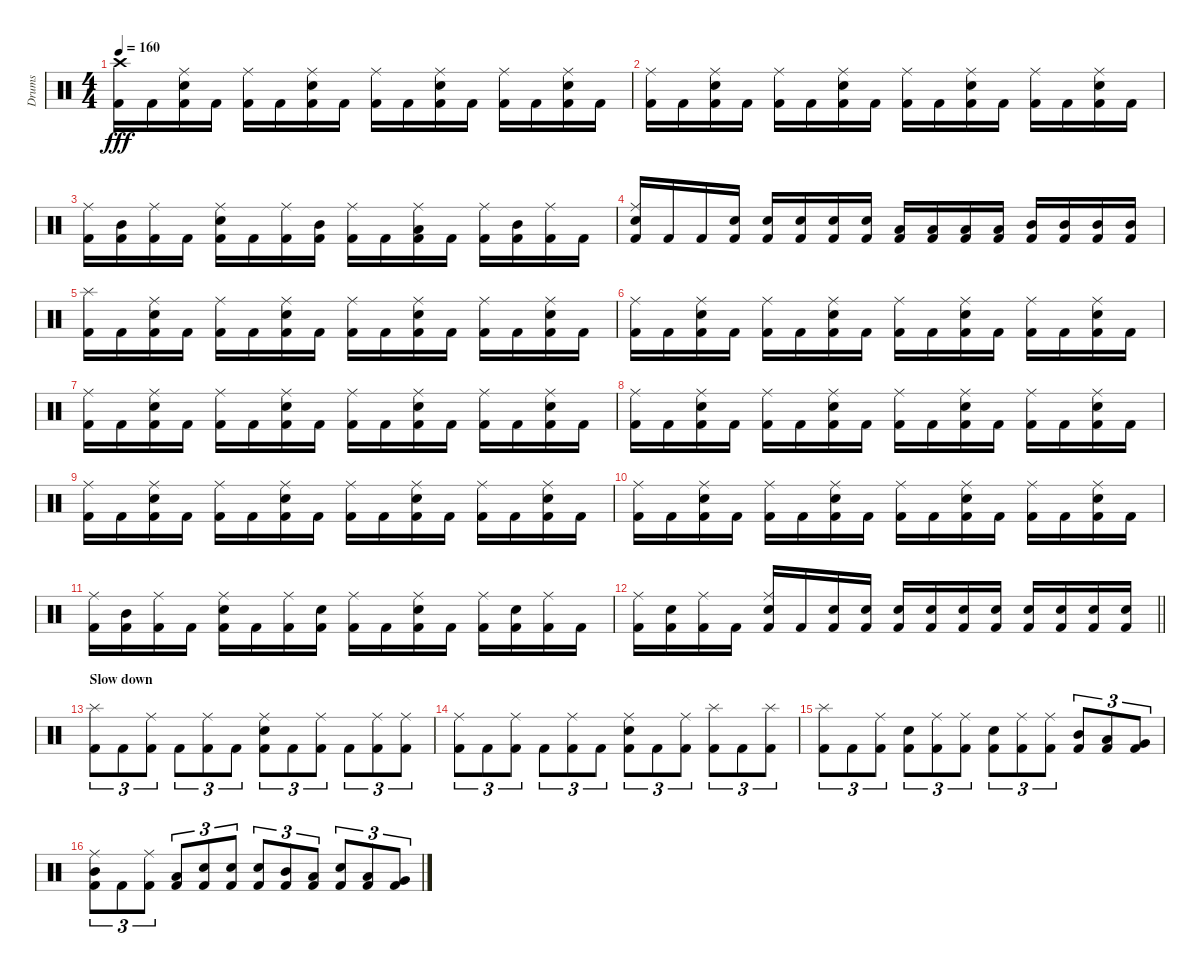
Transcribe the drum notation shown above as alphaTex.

\track ("Drums" "Drums") {instrument percussion}
\staff {score}
\articulation defaults
\ts (4 4)
\tempo 160
\clef neutral
\ks c
("Crash high (hit)" "Kick (hit) 2").16{dy fff} "Kick (hit) 2".16 ("Ride (middle)" "Electric Snare (hit)" "Kick (hit) 2").16 "Kick (hit) 2".16 ("Ride (middle)" "Kick (hit) 2").16 "Kick (hit) 2".16 ("Ride (middle)" "Electric Snare (hit)" "Kick (hit) 2").16 "Kick (hit) 2".16 ("Ride (middle)" "Kick (hit) 2").16 "Kick (hit) 2".16 ("Ride (middle)" "Electric Snare (hit)" "Kick (hit) 2").16 "Kick (hit) 2".16 ("Ride (middle)" "Kick (hit) 2").16 "Kick (hit) 2".16 ("Ride (middle)" "Electric Snare (hit)" "Kick (hit) 2").16 "Kick (hit) 2".16 |
("Ride (middle)" "Kick (hit) 2").16 "Kick (hit) 2".16 ("Ride (middle)" "Electric Snare (hit)" "Kick (hit) 2").16 "Kick (hit) 2".16 ("Ride (middle)" "Kick (hit) 2").16 "Kick (hit) 2".16 ("Ride (middle)" "Electric Snare (hit)" "Kick (hit) 2").16 "Kick (hit) 2".16 ("Ride (middle)" "Kick (hit) 2").16 "Kick (hit) 2".16 ("Ride (middle)" "Electric Snare (hit)" "Kick (hit) 2").16 "Kick (hit) 2".16 ("Ride (middle)" "Kick (hit) 2").16 "Kick (hit) 2".16 ("Ride (middle)" "Electric Snare (hit)" "Kick (hit) 2").16 "Kick (hit) 2".16 |
("Ride (middle)" "Kick (hit) 2").16 ("Mid Tom (hit)" "Kick (hit) 2").16 ("Ride (middle)" "Kick (hit) 2").16 "Kick (hit) 2".16 ("Ride (middle)" "Electric Snare (hit)" "Kick (hit) 2").16 "Kick (hit) 2".16 ("Ride (middle)" "Kick (hit) 2").16 ("Mid Tom (hit)" "Kick (hit) 2").16 ("Ride (middle)" "Kick (hit) 2").16 "Kick (hit) 2".16 ("Ride (middle)" "Low Tom (hit)" "Kick (hit) 2").16 "Kick (hit) 2".16 ("Ride (middle)" "Kick (hit) 2").16 ("Mid Tom (hit)" "Kick (hit) 2").16 ("Ride (middle)" "Kick (hit) 2").16 "Kick (hit) 2".16 |
("Ride (middle)" "Electric Snare (hit)" "Kick (hit) 2").16 "Kick (hit) 2".16 "Kick (hit) 2".16 ("Electric Snare (hit)" "Kick (hit) 2").16 ("Electric Snare (hit)" "Kick (hit) 2").16 ("Electric Snare (hit)" "Kick (hit) 2").16 ("Electric Snare (hit)" "Kick (hit) 2").16 ("Electric Snare (hit)" "Kick (hit) 2").16 ("Low Tom (hit)" "Kick (hit) 2").16 ("Low Tom (hit)" "Kick (hit) 2").16 ("Low Tom (hit)" "Kick (hit) 2").16 ("Low Tom (hit)" "Kick (hit) 2").16 ("Mid Tom (hit)" "Kick (hit) 2").16 ("Mid Tom (hit)" "Kick (hit) 2").16 ("Mid Tom (hit)" "Kick (hit) 2").16 ("Mid Tom (hit)" "Kick (hit) 2").16 |
("Splash (hit)" "Kick (hit) 2").16 "Kick (hit) 2".16 ("Ride (middle)" "Electric Snare (hit)" "Kick (hit) 2").16 "Kick (hit) 2".16 ("Ride (middle)" "Kick (hit) 2").16 "Kick (hit) 2".16 ("Ride (middle)" "Electric Snare (hit)" "Kick (hit) 2").16 "Kick (hit) 2".16 ("Ride (middle)" "Kick (hit) 2").16 "Kick (hit) 2".16 ("Ride (middle)" "Electric Snare (hit)" "Kick (hit) 2").16 "Kick (hit) 2".16 ("Ride (middle)" "Kick (hit) 2").16 "Kick (hit) 2".16 ("Ride (middle)" "Electric Snare (hit)" "Kick (hit) 2").16 "Kick (hit) 2".16 |
("Ride (middle)" "Kick (hit) 2").16 "Kick (hit) 2".16 ("Ride (middle)" "Electric Snare (hit)" "Kick (hit) 2").16 "Kick (hit) 2".16 ("Ride (middle)" "Kick (hit) 2").16 "Kick (hit) 2".16 ("Ride (middle)" "Electric Snare (hit)" "Kick (hit) 2").16 "Kick (hit) 2".16 ("Ride (middle)" "Kick (hit) 2").16 "Kick (hit) 2".16 ("Ride (middle)" "Electric Snare (hit)" "Kick (hit) 2").16 "Kick (hit) 2".16 ("Ride (middle)" "Kick (hit) 2").16 "Kick (hit) 2".16 ("Ride (middle)" "Electric Snare (hit)" "Kick (hit) 2").16 "Kick (hit) 2".16 |
("Ride (middle)" "Kick (hit) 2").16 "Kick (hit) 2".16 ("Ride (middle)" "Electric Snare (hit)" "Kick (hit) 2").16 "Kick (hit) 2".16 ("Ride (middle)" "Kick (hit) 2").16 "Kick (hit) 2".16 ("Ride (middle)" "Electric Snare (hit)" "Kick (hit) 2").16 "Kick (hit) 2".16 ("Ride (middle)" "Kick (hit) 2").16 "Kick (hit) 2".16 ("Ride (middle)" "Electric Snare (hit)" "Kick (hit) 2").16 "Kick (hit) 2".16 ("Ride (middle)" "Kick (hit) 2").16 "Kick (hit) 2".16 ("Ride (middle)" "Electric Snare (hit)" "Kick (hit) 2").16 "Kick (hit) 2".16 |
("Ride (middle)" "Kick (hit) 2").16 "Kick (hit) 2".16 ("Ride (middle)" "Electric Snare (hit)" "Kick (hit) 2").16 "Kick (hit) 2".16 ("Ride (middle)" "Kick (hit) 2").16 "Kick (hit) 2".16 ("Ride (middle)" "Electric Snare (hit)" "Kick (hit) 2").16 "Kick (hit) 2".16 ("Ride (middle)" "Kick (hit) 2").16 "Kick (hit) 2".16 ("Ride (middle)" "Electric Snare (hit)" "Kick (hit) 2").16 "Kick (hit) 2".16 ("Ride (middle)" "Kick (hit) 2").16 "Kick (hit) 2".16 ("Ride (middle)" "Electric Snare (hit)" "Kick (hit) 2").16 "Kick (hit) 2".16 |
("Ride (middle)" "Kick (hit) 2").16 "Kick (hit) 2".16 ("Ride (middle)" "Electric Snare (hit)" "Kick (hit) 2").16 "Kick (hit) 2".16 ("Ride (middle)" "Kick (hit) 2").16 "Kick (hit) 2".16 ("Ride (middle)" "Electric Snare (hit)" "Kick (hit) 2").16 "Kick (hit) 2".16 ("Ride (middle)" "Kick (hit) 2").16 "Kick (hit) 2".16 ("Ride (middle)" "Electric Snare (hit)" "Kick (hit) 2").16 "Kick (hit) 2".16 ("Ride (middle)" "Kick (hit) 2").16 "Kick (hit) 2".16 ("Ride (middle)" "Electric Snare (hit)" "Kick (hit) 2").16 "Kick (hit) 2".16 |
("Ride (middle)" "Kick (hit) 2").16 "Kick (hit) 2".16 ("Ride (middle)" "Electric Snare (hit)" "Kick (hit) 2").16 "Kick (hit) 2".16 ("Ride (middle)" "Kick (hit) 2").16 "Kick (hit) 2".16 ("Ride (middle)" "Electric Snare (hit)" "Kick (hit) 2").16 "Kick (hit) 2".16 ("Ride (middle)" "Kick (hit) 2").16 "Kick (hit) 2".16 ("Ride (middle)" "Electric Snare (hit)" "Kick (hit) 2").16 "Kick (hit) 2".16 ("Ride (middle)" "Kick (hit) 2").16 "Kick (hit) 2".16 ("Ride (middle)" "Electric Snare (hit)" "Kick (hit) 2").16 "Kick (hit) 2".16 |
("Ride (middle)" "Kick (hit) 2").16 ("Mid Tom (hit)" "Kick (hit) 2").16 ("Ride (middle)" "Kick (hit) 2").16 "Kick (hit) 2".16 ("Ride (middle)" "Electric Snare (hit)" "Kick (hit) 2").16 "Kick (hit) 2".16 ("Ride (middle)" "Kick (hit) 2").16 ("Electric Snare (hit)" "Kick (hit) 2").16 ("Ride (middle)" "Kick (hit) 2").16 "Kick (hit) 2".16 ("Ride (middle)" "Electric Snare (hit)" "Kick (hit) 2").16 "Kick (hit) 2".16 ("Ride (middle)" "Kick (hit) 2").16 ("Electric Snare (hit)" "Kick (hit) 2").16 ("Ride (middle)" "Kick (hit) 2").16 "Kick (hit) 2".16 |
\barLineRight lightlight
("Ride (middle)" "Kick (hit) 2").16 ("Electric Snare (hit)" "Kick (hit) 2").16 ("Ride (middle)" "Kick (hit) 2").16 "Kick (hit) 2".16 ("Ride (middle)" "Electric Snare (hit)" "Kick (hit) 2").16 "Kick (hit) 2".16 ("Electric Snare (hit)" "Kick (hit) 2").16 ("Electric Snare (hit)" "Kick (hit) 2").16 ("Electric Snare (hit)" "Kick (hit) 2").16 ("Electric Snare (hit)" "Kick (hit) 2").16 ("Electric Snare (hit)" "Kick (hit) 2").16 ("Electric Snare (hit)" "Kick (hit) 2").16 ("Electric Snare (hit)" "Kick (hit) 2").16 ("Electric Snare (hit)" "Kick (hit) 2").16 ("Electric Snare (hit)" "Kick (hit) 2").16 ("Electric Snare (hit)" "Kick (hit) 2").16 |
\section ("" "Slow down")
("Splash (hit)" "Kick (hit) 2").8{tu (3 2)} "Kick (hit) 2".8{tu (3 2)} ("Ride (middle)" "Kick (hit) 2").8{tu (3 2)} "Kick (hit) 2".8{tu (3 2)} ("Ride (middle)" "Kick (hit) 2").8{tu (3 2)} "Kick (hit) 2".8{tu (3 2)} ("Ride (middle)" "Electric Snare (hit)" "Kick (hit) 2").8{tu (3 2)} "Kick (hit) 2".8{tu (3 2)} ("Ride (middle)" "Kick (hit) 2").8{tu (3 2)} "Kick (hit) 2".8{tu (3 2)} ("Ride (middle)" "Kick (hit) 2").8{tu (3 2)} ("Ride (middle)" "Kick (hit) 2").8{tu (3 2)} |
("Ride (middle)" "Kick (hit) 2").8{tu (3 2)} "Kick (hit) 2".8{tu (3 2)} ("Ride (middle)" "Kick (hit) 2").8{tu (3 2)} "Kick (hit) 2".8{tu (3 2)} ("Ride (middle)" "Kick (hit) 2").8{tu (3 2)} "Kick (hit) 2".8{tu (3 2)} ("Ride (middle)" "Electric Snare (hit)" "Kick (hit) 2").8{tu (3 2)} "Kick (hit) 2".8{tu (3 2)} ("Ride (middle)" "Kick (hit) 2").8{tu (3 2)} ("Splash (hit)" "Kick (hit) 2").8{tu (3 2)} "Kick (hit) 2".8{tu (3 2)} ("Splash (hit)" "Kick (hit) 2").8{tu (3 2)} |
("Splash (hit)" "Kick (hit) 2").8{tu (3 2)} "Kick (hit) 2".8{tu (3 2)} ("Ride (middle)" "Kick (hit) 2").8{tu (3 2)} ("Electric Snare (hit)" "Kick (hit) 2").8{tu (3 2)} ("Ride (middle)" "Kick (hit) 2").8{tu (3 2)} ("Ride (middle)" "Kick (hit) 2").8{tu (3 2)} ("Electric Snare (hit)" "Kick (hit) 2").8{tu (3 2)} ("Ride (middle)" "Kick (hit) 2").8{tu (3 2)} ("Ride (middle)" "Kick (hit) 2").8{tu (3 2)} ("Mid Tom (hit)" "Kick (hit) 2").8{tu (3 2)} ("Low Tom (hit)" "Kick (hit) 2").8{tu (3 2)} ("Very Low Tom (hit)" "Kick (hit) 2").8{tu (3 2)} |
("Ride (middle)" "Mid Tom (hit)" "Kick (hit) 2").8{tu (3 2)} "Kick (hit) 2".8{tu (3 2)} ("Ride (middle)" "Kick (hit) 2").8{tu (3 2)} ("Low Tom (hit)" "Kick (hit) 2").8{tu (3 2)} ("Snare (hit)" "Kick (hit) 2").8{tu (3 2)} ("Electric Snare (hit)" "Kick (hit) 2").8{tu (3 2)} ("Electric Snare (hit)" "Kick (hit) 2").8{tu (3 2)} ("Mid Tom (hit)" "Kick (hit) 2").8{tu (3 2)} ("Low Tom (hit)" "Kick (hit) 2").8{tu (3 2)} ("Electric Snare (hit)" "Kick (hit) 2").8{tu (3 2)} ("Low Tom (hit)" "Kick (hit) 2").8{tu (3 2)} ("Very Low Tom (hit)" "Kick (hit) 2").8{tu (3 2)}
